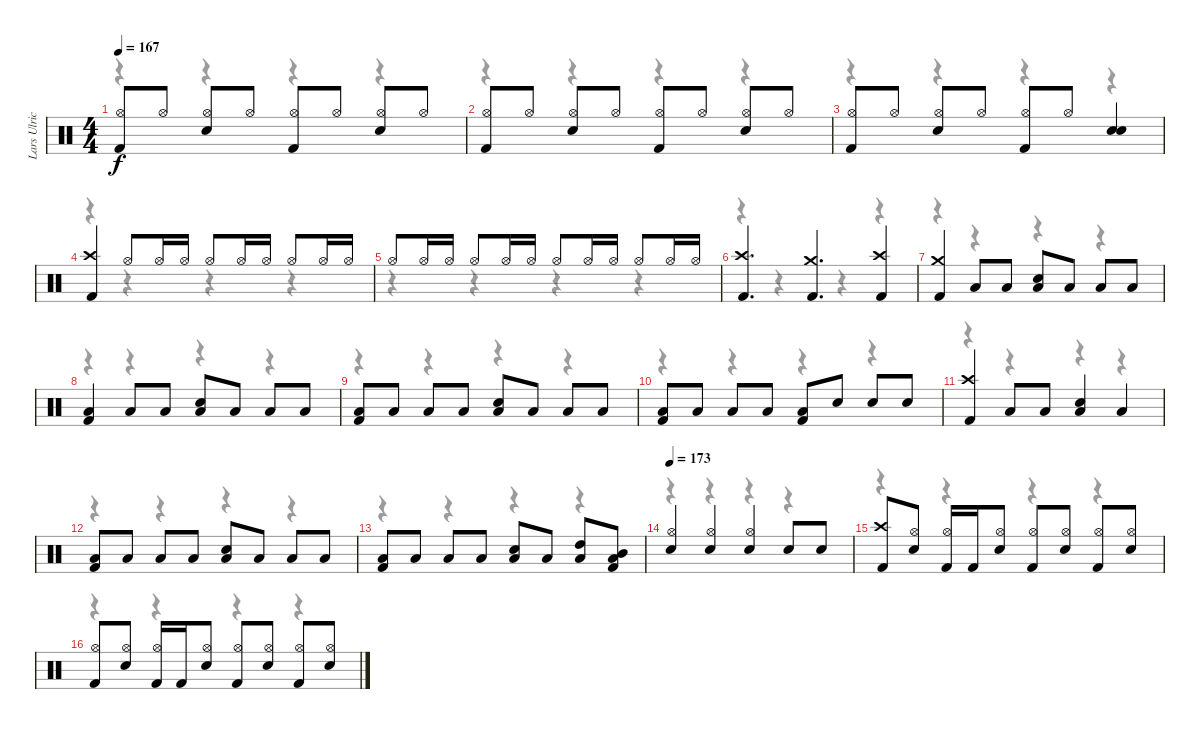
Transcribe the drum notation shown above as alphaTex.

\track ("Lars Ulrich" "Lars Ulric") {instrument percussion}
\staff {score}
\articulation defaults
\voice
\ts (4 4)
\tempo 167
\clef neutral
\ks c
("Hi-Hat (open)" "Kick (hit) 2").8{dy f} "Hi-Hat (open)".8 ("Hi-Hat (open)" "Snare (hit) 2").8 "Hi-Hat (open)".8 ("Hi-Hat (open)" "Kick (hit) 2").8 "Hi-Hat (open)".8 ("Hi-Hat (open)" "Snare (hit) 2").8 "Hi-Hat (open)".8 |
("Hi-Hat (open)" "Kick (hit) 2").8 "Hi-Hat (open)".8 ("Hi-Hat (open)" "Snare (hit) 2").8 "Hi-Hat (open)".8 ("Hi-Hat (open)" "Kick (hit) 2").8 "Hi-Hat (open)".8 ("Hi-Hat (open)" "Snare (hit) 2").8 "Hi-Hat (open)".8 |
("Hi-Hat (open)" "Kick (hit) 2").8 "Hi-Hat (open)".8 ("Hi-Hat (open)" "Snare (hit) 2").8 "Hi-Hat (open)".8 ("Hi-Hat (open)" "Kick (hit) 2").8 "Hi-Hat (open)".8 ("Snare (hit) 2" "Snare (hit) 2").4 |
("Crash high (hit)" "Kick (hit) 2").4 "Hi-Hat (open)".8 "Hi-Hat (open)".16 "Hi-Hat (open)".16 "Hi-Hat (open)".8 "Hi-Hat (open)".16 "Hi-Hat (open)".16 "Hi-Hat (open)".8 "Hi-Hat (open)".16 "Hi-Hat (open)".16 |
"Hi-Hat (open)".8 "Hi-Hat (open)".16 "Hi-Hat (open)".16 "Hi-Hat (open)".8 "Hi-Hat (open)".16 "Hi-Hat (open)".16 "Hi-Hat (open)".8 "Hi-Hat (open)".16 "Hi-Hat (open)".16 "Hi-Hat (open)".8 "Hi-Hat (open)".16 "Hi-Hat (open)".16 |
("Crash high (hit)" "Kick (hit) 2").4{d} ("Crash medium (hit)" "Kick (hit) 2").4{d} ("Crash high (hit)" "Kick (hit) 2").4 |
("Crash medium (hit)" "Kick (hit) 2").4 "Low Tom (hit)".8 "Low Tom (hit)".8 ("Snare (hit) 2" "Low Tom (hit)").8 "Low Tom (hit)".8 "Low Tom (hit)".8 "Low Tom (hit)".8 |
("Low Tom (hit)" "Kick (hit) 2").4 "Low Tom (hit)".8 "Low Tom (hit)".8 ("Low Tom (hit)" "Snare (hit) 2").8 "Low Tom (hit)".8 "Low Tom (hit)".8 "Low Tom (hit)".8 |
("Low Tom (hit)" "Kick (hit) 2").8 "Low Tom (hit)".8 "Low Tom (hit)".8 "Low Tom (hit)".8 ("Low Tom (hit)" "Snare (hit) 2").8 "Low Tom (hit)".8 "Low Tom (hit)".8 "Low Tom (hit)".8 |
("Low Tom (hit)" "Kick (hit) 2").8 "Low Tom (hit)".8 "Low Tom (hit)".8 "Low Tom (hit)".8 ("Low Tom (hit)" "Kick (hit) 2").8 "Snare (hit) 2".8 "Snare (hit) 2".8 "Snare (hit) 2".8 |
("Crash high (hit)" "Kick (hit) 2").4 "Low Tom (hit)".8 "Low Tom (hit)".8 ("Snare (hit) 2" "Low Tom (hit)").4 "Low Tom (hit)".4 |
("Low Tom (hit)" "Kick (hit) 2").8 "Low Tom (hit)".8 "Low Tom (hit)".8 "Low Tom (hit)".8 ("Low Tom (hit)" "Snare (hit) 2").8 "Low Tom (hit)".8 "Low Tom (hit)".8 "Low Tom (hit)".8 |
("Low Tom (hit)" "Kick (hit) 2").8 "Low Tom (hit)".8 "Low Tom (hit)".8 "Low Tom (hit)".8 ("Low Tom (hit)" "Snare (hit) 2").8 "Low Tom (hit)".8 ("High Tom (hit)" "Low Tom (hit)").8 ("Mid Tom (hit)" "Low Tom (hit)" "Kick (hit) 2").8 |
\tempo 173
("Hi-Hat (open)" "Snare (hit) 2").4 ("Hi-Hat (open)" "Snare (hit) 2").4 ("Hi-Hat (open)" "Snare (hit) 2").4 "Snare (hit) 2".8 "Snare (hit) 2".8 |
("Crash high (hit)" "Kick (hit) 2").8 ("Hi-Hat (open)" "Snare (hit) 2").8 ("Hi-Hat (open)" "Kick (hit) 2").16 "Kick (hit) 2".16 ("Hi-Hat (open)" "Snare (hit) 2").8 ("Hi-Hat (open)" "Kick (hit) 2").8 ("Hi-Hat (open)" "Snare (hit) 2").8 ("Hi-Hat (open)" "Kick (hit) 2").8 ("Hi-Hat (open)" "Snare (hit) 2").8 |
("Hi-Hat (open)" "Kick (hit) 2").8 ("Hi-Hat (open)" "Snare (hit) 2").8 ("Hi-Hat (open)" "Kick (hit) 2").16 "Kick (hit) 2".16 ("Hi-Hat (open)" "Snare (hit) 2").8 ("Hi-Hat (open)" "Kick (hit) 2").8 ("Hi-Hat (open)" "Snare (hit) 2").8 ("Hi-Hat (open)" "Kick (hit) 2").8 ("Hi-Hat (open)" "Snare (hit) 2").8
\voice
\clef neutral
\ottava regular
\simile none
\ks c
r.4{dy f} r.4 r.4 r.4 |
r.4 r.4 r.4 r.4 |
r.4 r.4 r.4 r.4 |
r.4 r.4 r.4 r.4 |
r.4 r.4 r.4 r.4 |
r.4 r.4 r.4 r.4 |
r.4 r.4 r.4 r.4 |
r.4 r.4 r.4 r.4 |
r.4 r.4 r.4 r.4 |
r.4 r.4 r.4 r.4 |
r.4 r.4 r.4 r.4 |
r.4 r.4 r.4 r.4 |
r.4 r.4 r.4 r.4 |
r.4 r.4 r.4 r.4 |
r.4 r.4 r.4 r.4 |
r.4 r.4 r.4 r.4
